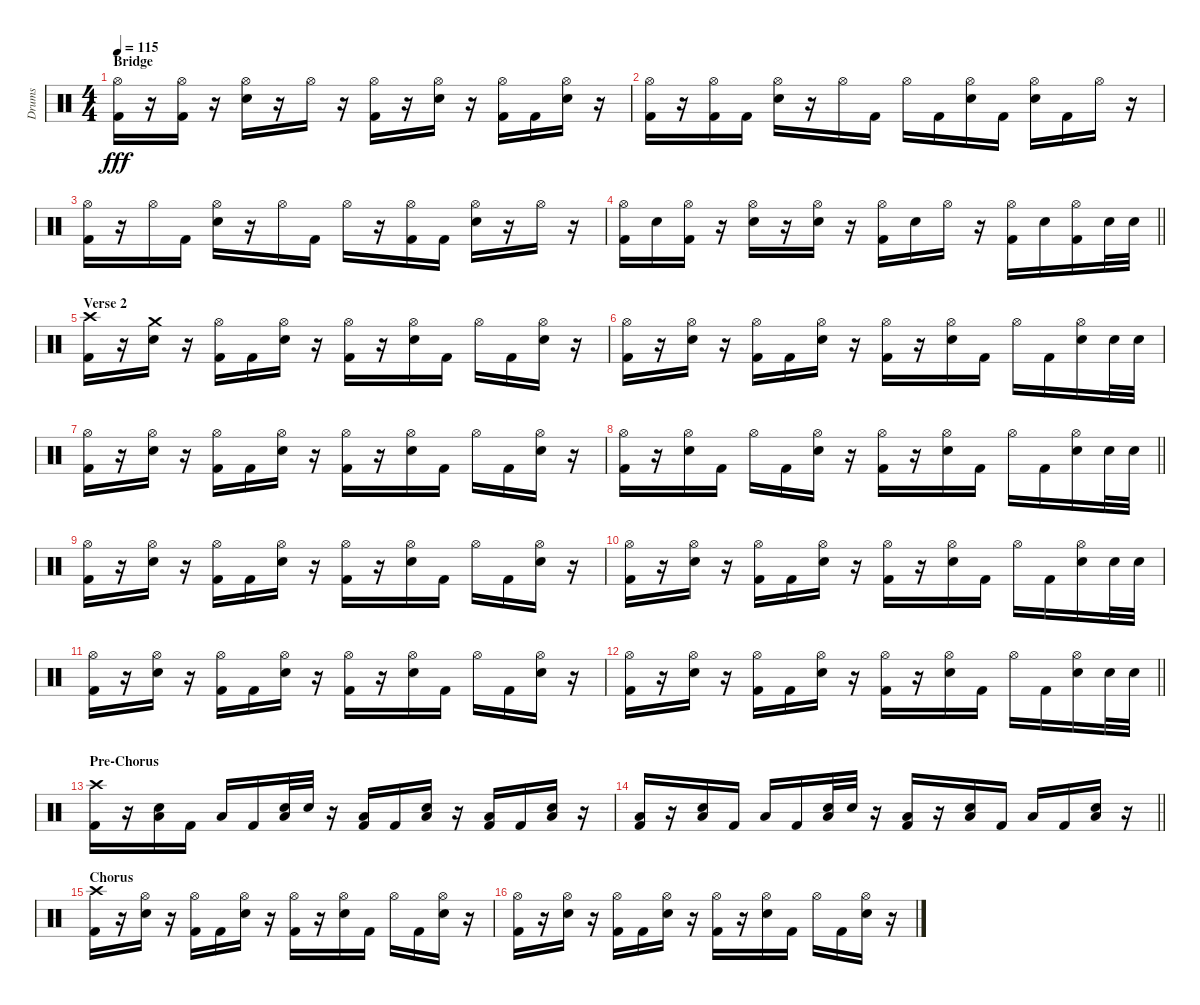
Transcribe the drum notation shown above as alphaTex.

\track ("Drums" "Drums") {instrument percussion}
\staff {score}
\articulation defaults
\ts (4 4)
\section ("" "Bridge")
\tempo 115
\clef neutral
\ks c
("Hi-Hat (open)" "Kick (hit) 2").16{dy fff} r.16 ("Hi-Hat (open)" "Kick (hit) 2").16 r.16 ("Hi-Hat (open)" "Snare (hit) 2").16 r.16 "Hi-Hat (open)".16 r.16 ("Hi-Hat (open)" "Kick (hit) 2").16 r.16 ("Hi-Hat (open)" "Snare (hit) 2").16 r.16 ("Hi-Hat (open)" "Kick (hit) 2").16 "Kick (hit) 2".16 ("Hi-Hat (open)" "Snare (hit) 2").16 r.16 |
("Hi-Hat (open)" "Kick (hit) 2").16 r.16 ("Hi-Hat (open)" "Kick (hit) 2").16 "Kick (hit) 2".16 ("Hi-Hat (open)" "Snare (hit) 2").16 r.16 "Hi-Hat (open)".16 "Kick (hit) 2".16 "Hi-Hat (open)".16 "Kick (hit) 2".16 ("Hi-Hat (open)" "Snare (hit) 2").16 "Kick (hit) 2".16 ("Hi-Hat (open)" "Snare (hit) 2").16 "Kick (hit) 2".16 "Hi-Hat (open)".16 r.16 |
("Hi-Hat (open)" "Kick (hit) 2").16 r.16 "Hi-Hat (open)".16 "Kick (hit) 2".16 ("Hi-Hat (open)" "Snare (hit) 2").16 r.16 "Hi-Hat (open)".16 "Kick (hit) 2".16 "Hi-Hat (open)".16 r.16 ("Hi-Hat (open)" "Kick (hit) 2").16 "Kick (hit) 2".16 ("Hi-Hat (open)" "Snare (hit) 2").16 r.16 "Hi-Hat (open)".16 r.16 |
\barLineRight lightlight
("Hi-Hat (open)" "Kick (hit) 2").16 "Snare (hit) 2".16 ("Hi-Hat (open)" "Kick (hit) 2").16 r.16 ("Hi-Hat (open)" "Snare (hit) 2").16 r.16 ("Hi-Hat (open)" "Snare (hit) 2").16 r.16 ("Hi-Hat (open)" "Kick (hit) 2").16 "Snare (hit) 2".16 "Hi-Hat (open)".16 r.16 ("Hi-Hat (open)" "Kick (hit) 2").16 "Snare (hit) 2".16 ("Hi-Hat (open)" "Kick (hit) 2").16 "Snare (hit) 2".32 "Snare (hit) 2".32 |
\section ("" "Verse 2")
("Crash high (hit)" "Kick (hit) 2").16 r.16 ("Crash medium (hit)" "Snare (hit) 2").16 r.16 ("Hi-Hat (open)" "Kick (hit) 2").16 "Kick (hit) 2".16 ("Hi-Hat (open)" "Snare (hit) 2").16 r.16 ("Hi-Hat (open)" "Kick (hit) 2").16 r.16 ("Hi-Hat (open)" "Snare (hit) 2").16 "Kick (hit) 2".16 "Hi-Hat (open)".16 "Kick (hit) 2".16 ("Hi-Hat (open)" "Snare (hit) 2").16 r.16 |
("Hi-Hat (open)" "Kick (hit) 2").16 r.16 ("Hi-Hat (open)" "Snare (hit) 2").16 r.16 ("Hi-Hat (open)" "Kick (hit) 2").16 "Kick (hit) 2".16 ("Hi-Hat (open)" "Snare (hit) 2").16 r.16 ("Hi-Hat (open)" "Kick (hit) 2").16 r.16 ("Hi-Hat (open)" "Snare (hit) 2").16 "Kick (hit) 2".16 "Hi-Hat (open)".16 "Kick (hit) 2".16 ("Hi-Hat (open)" "Snare (hit) 2").16 "Snare (hit) 2".32 "Snare (hit) 2".32 |
("Hi-Hat (open)" "Kick (hit) 2").16 r.16 ("Hi-Hat (open)" "Snare (hit) 2").16 r.16 ("Hi-Hat (open)" "Kick (hit) 2").16 "Kick (hit) 2".16 ("Hi-Hat (open)" "Snare (hit) 2").16 r.16 ("Hi-Hat (open)" "Kick (hit) 2").16 r.16 ("Hi-Hat (open)" "Snare (hit) 2").16 "Kick (hit) 2".16 "Hi-Hat (open)".16 "Kick (hit) 2".16 ("Hi-Hat (open)" "Snare (hit) 2").16 r.16 |
\barLineRight lightlight
("Hi-Hat (open)" "Kick (hit) 2").16 r.16 ("Hi-Hat (open)" "Snare (hit) 2").16 "Kick (hit) 2".16 "Hi-Hat (open)".16 "Kick (hit) 2".16 ("Hi-Hat (open)" "Snare (hit) 2").16 r.16 ("Hi-Hat (open)" "Kick (hit) 2").16 r.16 ("Hi-Hat (open)" "Snare (hit) 2").16 "Kick (hit) 2".16 "Hi-Hat (open)".16 "Kick (hit) 2".16 ("Hi-Hat (open)" "Snare (hit) 2").16 "Snare (hit) 2".32 "Snare (hit) 2".32 |
("Hi-Hat (open)" "Kick (hit) 2").16 r.16 ("Hi-Hat (open)" "Snare (hit) 2").16 r.16 ("Hi-Hat (open)" "Kick (hit) 2").16 "Kick (hit) 2".16 ("Hi-Hat (open)" "Snare (hit) 2").16 r.16 ("Hi-Hat (open)" "Kick (hit) 2").16 r.16 ("Hi-Hat (open)" "Snare (hit) 2").16 "Kick (hit) 2".16 "Hi-Hat (open)".16 "Kick (hit) 2".16 ("Hi-Hat (open)" "Snare (hit) 2").16 r.16 |
("Hi-Hat (open)" "Kick (hit) 2").16 r.16 ("Hi-Hat (open)" "Snare (hit) 2").16 r.16 ("Hi-Hat (open)" "Kick (hit) 2").16 "Kick (hit) 2".16 ("Hi-Hat (open)" "Snare (hit) 2").16 r.16 ("Hi-Hat (open)" "Kick (hit) 2").16 r.16 ("Hi-Hat (open)" "Snare (hit) 2").16 "Kick (hit) 2".16 "Hi-Hat (open)".16 "Kick (hit) 2".16 ("Hi-Hat (open)" "Snare (hit) 2").16 "Snare (hit) 2".32 "Snare (hit) 2".32 |
("Hi-Hat (open)" "Kick (hit) 2").16 r.16 ("Hi-Hat (open)" "Snare (hit) 2").16 r.16 ("Hi-Hat (open)" "Kick (hit) 2").16 "Kick (hit) 2".16 ("Hi-Hat (open)" "Snare (hit) 2").16 r.16 ("Hi-Hat (open)" "Kick (hit) 2").16 r.16 ("Hi-Hat (open)" "Snare (hit) 2").16 "Kick (hit) 2".16 "Hi-Hat (open)".16 "Kick (hit) 2".16 ("Hi-Hat (open)" "Snare (hit) 2").16 r.16 |
\barLineRight lightlight
("Hi-Hat (open)" "Kick (hit) 2").16 r.16 ("Hi-Hat (open)" "Snare (hit) 2").16 r.16 ("Hi-Hat (open)" "Kick (hit) 2").16 "Kick (hit) 2".16 ("Hi-Hat (open)" "Snare (hit) 2").16 r.16 ("Hi-Hat (open)" "Kick (hit) 2").16 r.16 ("Hi-Hat (open)" "Snare (hit) 2").16 "Kick (hit) 2".16 "Hi-Hat (open)".16 "Kick (hit) 2".16 ("Hi-Hat (open)" "Snare (hit) 2").16 "Snare (hit) 2".32 "Snare (hit) 2".32 |
\section ("" "Pre-Chorus ")
("Crash high (hit)" "Kick (hit) 2").16 r.16 ("Low Floor Tom (hit)" "Snare (hit) 2").16 "Kick (hit) 2".16 "Low Floor Tom (hit)".16 "Kick (hit) 2".16 ("Low Floor Tom (hit)" "Snare (hit) 2").32 "Snare (hit) 2".32 r.16 ("Low Floor Tom (hit)" "Kick (hit) 2").16 "Kick (hit) 2".16 ("Low Floor Tom (hit)" "Snare (hit) 2").16 r.16 ("Low Floor Tom (hit)" "Kick (hit) 2").16 "Kick (hit) 2".16 ("Low Floor Tom (hit)" "Snare (hit) 2").16 r.16 |
\barLineRight lightlight
("Low Floor Tom (hit)" "Kick (hit) 2").16 r.16 ("Low Floor Tom (hit)" "Snare (hit) 2").16 "Kick (hit) 2".16 "Low Floor Tom (hit)".16 "Kick (hit) 2".16 ("Low Floor Tom (hit)" "Snare (hit) 2").32 "Snare (hit) 2".32 r.16 ("Low Floor Tom (hit)" "Kick (hit) 2").16 r.16 ("Low Floor Tom (hit)" "Snare (hit) 2").16 "Kick (hit) 2".16 "Low Floor Tom (hit)".16 "Kick (hit) 2".16 ("Low Floor Tom (hit)" "Snare (hit) 2").16 r.16 |
\section ("" "Chorus")
("Crash high (hit)" "Kick (hit) 2").16 r.16 ("Hi-Hat (open)" "Snare (hit) 2").16 r.16 ("Hi-Hat (open)" "Kick (hit) 2").16 "Kick (hit) 2".16 ("Hi-Hat (open)" "Snare (hit) 2").16 r.16 ("Hi-Hat (open)" "Kick (hit) 2").16 r.16 ("Hi-Hat (open)" "Snare (hit) 2").16 "Kick (hit) 2".16 "Hi-Hat (open)".16 "Kick (hit) 2".16 ("Hi-Hat (open)" "Snare (hit) 2").16 r.16 |
("Hi-Hat (open)" "Kick (hit) 2").16 r.16 ("Hi-Hat (open)" "Snare (hit) 2").16 r.16 ("Hi-Hat (open)" "Kick (hit) 2").16 "Kick (hit) 2".16 ("Hi-Hat (open)" "Snare (hit) 2").16 r.16 ("Hi-Hat (open)" "Kick (hit) 2").16 r.16 ("Hi-Hat (open)" "Snare (hit) 2").16 "Kick (hit) 2".16 "Hi-Hat (open)".16 "Kick (hit) 2".16 ("Hi-Hat (open)" "Snare (hit) 2").16 r.16
